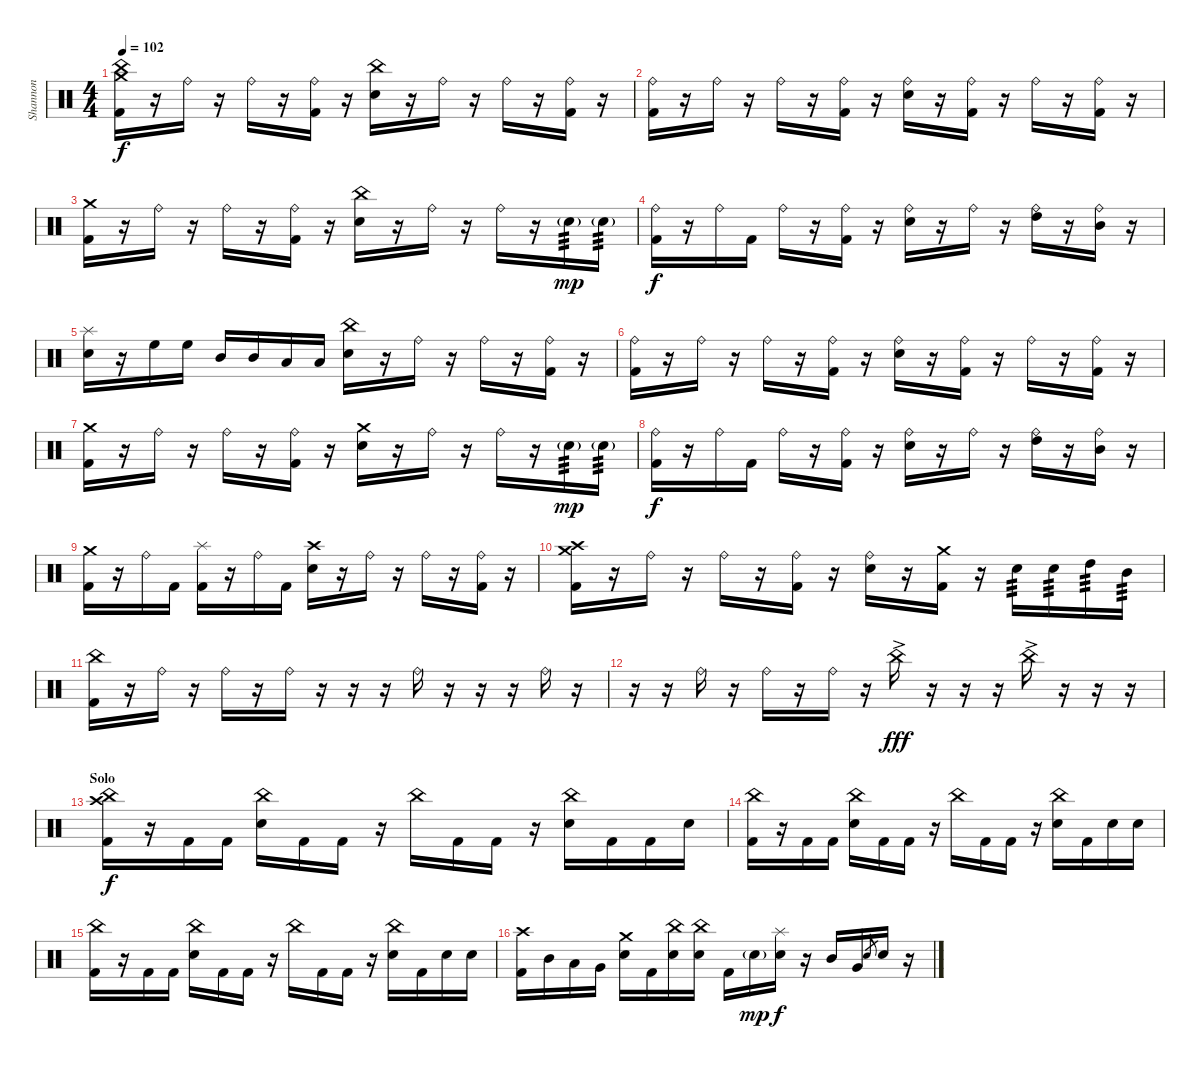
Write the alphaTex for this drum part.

\track ("Shannon" "Shannon") {instrument percussion}
\staff {score}
\articulation defaults
\ts (4 4)
\tempo 102
\clef neutral
\ks c
("Crash medium (hit)" "China (hit)" "Kick (hit) 2").16{dy f} r.16 "Ride (bell)".16 r.16 "Ride (bell)".16 r.16 ("Ride (bell)" "Kick (hit) 2").16 r.16 ("China (hit)" "Electric Snare (hit)").16 r.16 "Ride (bell)".16 r.16 "Ride (bell)".16 r.16 ("Ride (bell)" "Kick (hit) 2").16 r.16 |
("Ride (bell)" "Kick (hit) 2").16 r.16 "Ride (bell)".16 r.16 "Ride (bell)".16 r.16 ("Ride (bell)" "Kick (hit) 2").16 r.16 ("Ride (bell)" "Electric Snare (hit)").16 r.16 ("Ride (bell)" "Kick (hit) 2").16 r.16 "Ride (bell)".16 r.16 ("Ride (bell)" "Kick (hit) 2").16 r.16 |
("Crash medium (hit)" "Kick (hit) 2").16 r.16 "Ride (bell)".16 r.16 "Ride (bell)".16 r.16 ("Ride (bell)" "Kick (hit) 2").16 r.16 ("China (hit)" "Electric Snare (hit)").16 r.16 "Ride (bell)".16 r.16 "Ride (bell)".16 r.16 "Electric Snare (hit)"{g}.16{tp 3 dy mp} "Electric Snare (hit)"{g}.16{tp 3} |
("Ride (bell)" "Kick (hit) 2").16{dy f} r.16 "Ride (bell)".16 "Kick (hit) 2".16 "Ride (bell)".16 r.16 ("Ride (bell)" "Kick (hit) 2").16 r.16 ("Ride (bell)" "Electric Snare (hit)").16 r.16 "Ride (bell)".16 r.16 ("Ride (bell)" "High Tom (hit)").16 r.16 ("Ride (bell)" "Mid Tom (hit)").16 r.16 |
("Splash (hit)" "Electric Snare (hit)").16 r.16 "High Floor Tom (hit)".16 "High Floor Tom (hit)".16 "Mid Tom (hit)".16 "Mid Tom (hit)".16 "Low Tom (hit)".16 "Low Tom (hit)".16 ("China (hit)" "Electric Snare (hit)").16 r.16 "Ride (bell)".16 r.16 "Ride (bell)".16 r.16 ("Ride (bell)" "Kick (hit) 2").16 r.16 |
("Ride (bell)" "Kick (hit) 2").16 r.16 "Ride (bell)".16 r.16 "Ride (bell)".16 r.16 ("Ride (bell)" "Kick (hit) 2").16 r.16 ("Ride (bell)" "Electric Snare (hit)").16 r.16 ("Ride (bell)" "Kick (hit) 2").16 r.16 "Ride (bell)".16 r.16 ("Ride (bell)" "Kick (hit) 2").16 r.16 |
("Crash medium (hit)" "Kick (hit) 2").16 r.16 "Ride (bell)".16 r.16 "Ride (bell)".16 r.16 ("Ride (bell)" "Kick (hit) 2").16 r.16 ("Crash medium (hit)" "Electric Snare (hit)").16 r.16 "Ride (bell)".16 r.16 "Ride (bell)".16 r.16 "Electric Snare (hit)"{g}.16{tp 3 dy mp} "Electric Snare (hit)"{g}.16{tp 3} |
("Ride (bell)" "Kick (hit) 2").16{dy f} r.16 "Ride (bell)".16 "Kick (hit) 2".16 "Ride (bell)".16 r.16 ("Ride (bell)" "Kick (hit) 2").16 r.16 ("Ride (bell)" "Electric Snare (hit)").16 r.16 "Ride (bell)".16 r.16 ("Ride (bell)" "High Tom (hit)").16 r.16 ("Ride (bell)" "Mid Tom (hit)").16 r.16 |
("Crash medium (hit)" "Kick (hit) 2").16 r.16 "Ride (bell)".16 "Kick (hit) 2".16 ("Splash (hit)" "Kick (hit) 2").16 r.16 "Ride (bell)".16 "Kick (hit) 2".16 ("Crash high (hit)" "Electric Snare (hit)").16 r.16 "Ride (bell)".16 r.16 "Ride (bell)".16 r.16 ("Ride (bell)" "Kick (hit) 2").16 r.16 |
("Crash high (hit)" "Crash medium (hit)" "Kick (hit) 2").16 r.16 "Ride (bell)".16 r.16 "Ride (bell)".16 r.16 ("Ride (bell)" "Kick (hit) 2").16 r.16 ("Ride (bell)" "Electric Snare (hit)").16 r.16 ("Crash medium (hit)" "Kick (hit) 2").16 r.16 "Electric Snare (hit)".16{tp 3} "Electric Snare (hit)".16{tp 3} "High Tom (hit)".16{tp 3} "Mid Tom (hit)".16{tp 3} |
("China (hit)" "Kick (hit) 2").16 r.16 "Ride (bell)".16 r.16 "Ride (bell)".16 r.16 "Ride (bell)".16 r.16 r.16 r.16 "Ride (bell)".16 r.16 r.16 r.16 "Ride (bell)".16 r.16 |
r.16 r.16 "Ride (bell)".16 r.16 "Ride (bell)".16 r.16 "Ride (bell)".16 r.16 "China (hit)"{ac}.16{dy fff} r.16 r.16 r.16 "China (hit)"{ac}.16 r.16 r.16 r.16 |
\section ("" "Solo")
("Crash high (hit)" "China (hit)" "Kick (hit) 2").16{dy f} r.16 "Kick (hit) 2".16 "Kick (hit) 2".16 ("China (hit)" "Electric Snare (hit)").16 "Kick (hit) 2".16 "Kick (hit) 2".16 r.16 "China (hit)".16 "Kick (hit) 2".16 "Kick (hit) 2".16 r.16 ("China (hit)" "Electric Snare (hit)").16 "Kick (hit) 2".16 "Kick (hit) 2".16 "Electric Snare (hit)".16 |
("China (hit)" "Kick (hit) 2").16 r.16 "Kick (hit) 2".16 "Kick (hit) 2".16 ("China (hit)" "Electric Snare (hit)").16 "Kick (hit) 2".16 "Kick (hit) 2".16 r.16 "China (hit)".16 "Kick (hit) 2".16 "Kick (hit) 2".16 r.16 ("China (hit)" "Electric Snare (hit)").16 "Kick (hit) 2".16 "Electric Snare (hit)".16 "Electric Snare (hit)".16 |
("China (hit)" "Kick (hit) 2").16 r.16 "Kick (hit) 2".16 "Kick (hit) 2".16 ("China (hit)" "Electric Snare (hit)").16 "Kick (hit) 2".16 "Kick (hit) 2".16 r.16 "China (hit)".16 "Kick (hit) 2".16 "Kick (hit) 2".16 r.16 ("China (hit)" "Electric Snare (hit)").16 "Kick (hit) 2".16 "Electric Snare (hit)".16 "Electric Snare (hit)".16 |
("Crash high (hit)" "Kick (hit) 2").16 "Mid Tom (hit)".16 "Low Tom (hit)".16 "Very Low Tom (hit)".16 ("Crash medium (hit)" "Electric Snare (hit)").16 "Kick (hit) 2".16 ("China (hit)" "Electric Snare (hit)").16 ("China (hit)" "Electric Snare (hit)").16 "Kick (hit) 2".16 "Electric Snare (hit)"{g}.16{dy mp} ("Splash (hit)" "Electric Snare (hit)").16{dy f} r.16 "Mid Tom (hit)".16 "Very Low Tom (hit)".16 "Electric Snare (hit)".8{gr} "Electric Snare (hit)".16 r.16
